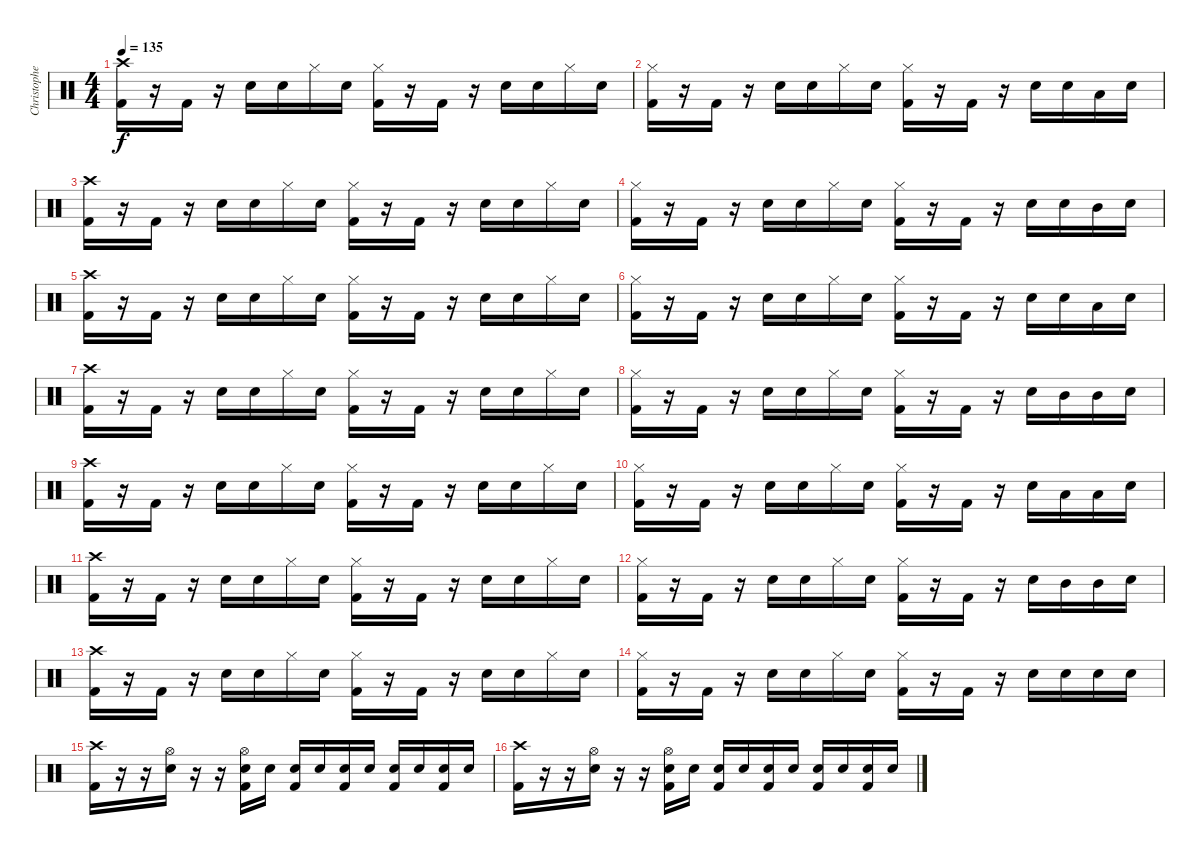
\track ("Christopher - Drums" "Christophe") {instrument percussion}
\staff {score}
\articulation defaults
\ts (4 4)
\tempo 135
\clef neutral
\ks c
("Crash high (hit)" "Kick (hit) 2").16{dy f} r.16 "Kick (hit) 2".16 r.16 "Electric Snare (hit)".16 "Electric Snare (hit)".16 "Hi-Hat (closed)".16 "Electric Snare (hit)".16 ("Hi-Hat (closed)" "Kick (hit) 2").16 r.16 "Kick (hit) 2".16 r.16 "Electric Snare (hit)".16 "Electric Snare (hit)".16 "Hi-Hat (closed)".16 "Electric Snare (hit)".16 |
("Hi-Hat (closed)" "Kick (hit) 2").16 r.16 "Kick (hit) 2".16 r.16 "Electric Snare (hit)".16 "Electric Snare (hit)".16 "Hi-Hat (closed)".16 "Electric Snare (hit)".16 ("Hi-Hat (closed)" "Kick (hit) 2").16 r.16 "Kick (hit) 2".16 r.16 "Electric Snare (hit)".16 "Electric Snare (hit)".16 "Low Floor Tom (hit)".16 "Electric Snare (hit)".16 |
("Crash high (hit)" "Kick (hit) 2").16 r.16 "Kick (hit) 2".16 r.16 "Electric Snare (hit)".16 "Electric Snare (hit)".16 "Hi-Hat (closed)".16 "Electric Snare (hit)".16 ("Hi-Hat (closed)" "Kick (hit) 2").16 r.16 "Kick (hit) 2".16 r.16 "Electric Snare (hit)".16 "Electric Snare (hit)".16 "Hi-Hat (closed)".16 "Electric Snare (hit)".16 |
("Hi-Hat (closed)" "Kick (hit) 2").16 r.16 "Kick (hit) 2".16 r.16 "Electric Snare (hit)".16 "Electric Snare (hit)".16 "Hi-Hat (closed)".16 "Electric Snare (hit)".16 ("Hi-Hat (closed)" "Kick (hit) 2").16 r.16 "Kick (hit) 2".16 r.16 "Electric Snare (hit)".16 "Electric Snare (hit)".16 "Mid Tom (hit)".16 "Electric Snare (hit)".16 |
("Crash high (hit)" "Kick (hit) 2").16 r.16 "Kick (hit) 2".16 r.16 "Electric Snare (hit)".16 "Electric Snare (hit)".16 "Hi-Hat (closed)".16 "Electric Snare (hit)".16 ("Hi-Hat (closed)" "Kick (hit) 2").16 r.16 "Kick (hit) 2".16 r.16 "Electric Snare (hit)".16 "Electric Snare (hit)".16 "Hi-Hat (closed)".16 "Electric Snare (hit)".16 |
("Hi-Hat (closed)" "Kick (hit) 2").16 r.16 "Kick (hit) 2".16 r.16 "Electric Snare (hit)".16 "Electric Snare (hit)".16 "Hi-Hat (closed)".16 "Electric Snare (hit)".16 ("Hi-Hat (closed)" "Kick (hit) 2").16 r.16 "Kick (hit) 2".16 r.16 "Electric Snare (hit)".16 "Electric Snare (hit)".16 "Low Floor Tom (hit)".16 "Electric Snare (hit)".16 |
("Crash high (hit)" "Kick (hit) 2").16 r.16 "Kick (hit) 2".16 r.16 "Electric Snare (hit)".16 "Electric Snare (hit)".16 "Hi-Hat (closed)".16 "Electric Snare (hit)".16 ("Hi-Hat (closed)" "Kick (hit) 2").16 r.16 "Kick (hit) 2".16 r.16 "Electric Snare (hit)".16 "Electric Snare (hit)".16 "Hi-Hat (closed)".16 "Electric Snare (hit)".16 |
("Hi-Hat (closed)" "Kick (hit) 2").16 r.16 "Kick (hit) 2".16 r.16 "Electric Snare (hit)".16 "Electric Snare (hit)".16 "Hi-Hat (closed)".16 "Electric Snare (hit)".16 ("Hi-Hat (closed)" "Kick (hit) 2").16 r.16 "Kick (hit) 2".16 r.16 "Electric Snare (hit)".16 "Mid Tom (hit)".16 "Mid Tom (hit)".16 "Electric Snare (hit)".16 |
("Crash high (hit)" "Kick (hit) 2").16 r.16 "Kick (hit) 2".16 r.16 "Electric Snare (hit)".16 "Electric Snare (hit)".16 "Hi-Hat (closed)".16 "Electric Snare (hit)".16 ("Hi-Hat (closed)" "Kick (hit) 2").16 r.16 "Kick (hit) 2".16 r.16 "Electric Snare (hit)".16 "Electric Snare (hit)".16 "Hi-Hat (closed)".16 "Electric Snare (hit)".16 |
("Hi-Hat (closed)" "Kick (hit) 2").16 r.16 "Kick (hit) 2".16 r.16 "Electric Snare (hit)".16 "Electric Snare (hit)".16 "Hi-Hat (closed)".16 "Electric Snare (hit)".16 ("Hi-Hat (closed)" "Kick (hit) 2").16 r.16 "Kick (hit) 2".16 r.16 "Electric Snare (hit)".16 "Low Floor Tom (hit)".16 "Low Floor Tom (hit)".16 "Electric Snare (hit)".16 |
("Crash high (hit)" "Kick (hit) 2").16 r.16 "Kick (hit) 2".16 r.16 "Electric Snare (hit)".16 "Electric Snare (hit)".16 "Hi-Hat (closed)".16 "Electric Snare (hit)".16 ("Hi-Hat (closed)" "Kick (hit) 2").16 r.16 "Kick (hit) 2".16 r.16 "Electric Snare (hit)".16 "Electric Snare (hit)".16 "Hi-Hat (closed)".16 "Electric Snare (hit)".16 |
("Hi-Hat (closed)" "Kick (hit) 2").16 r.16 "Kick (hit) 2".16 r.16 "Electric Snare (hit)".16 "Electric Snare (hit)".16 "Hi-Hat (closed)".16 "Electric Snare (hit)".16 ("Hi-Hat (closed)" "Kick (hit) 2").16 r.16 "Kick (hit) 2".16 r.16 "Electric Snare (hit)".16 "Mid Tom (hit)".16 "Mid Tom (hit)".16 "Electric Snare (hit)".16 |
("Crash high (hit)" "Kick (hit) 2").16 r.16 "Kick (hit) 2".16 r.16 "Electric Snare (hit)".16 "Electric Snare (hit)".16 "Hi-Hat (closed)".16 "Electric Snare (hit)".16 ("Hi-Hat (closed)" "Kick (hit) 2").16 r.16 "Kick (hit) 2".16 r.16 "Electric Snare (hit)".16 "Electric Snare (hit)".16 "Hi-Hat (closed)".16 "Electric Snare (hit)".16 |
("Hi-Hat (closed)" "Kick (hit) 2").16 r.16 "Kick (hit) 2".16 r.16 "Electric Snare (hit)".16 "Electric Snare (hit)".16 "Hi-Hat (closed)".16 "Electric Snare (hit)".16 ("Hi-Hat (closed)" "Kick (hit) 2").16 r.16 "Kick (hit) 2".16 r.16 "Electric Snare (hit)".16 "Electric Snare (hit)".16 "Electric Snare (hit)".16 "Electric Snare (hit)".16 |
("Crash high (hit)" "Kick (hit) 2").16 r.16 r.16 ("Hi-Hat (open)" "Electric Snare (hit)").16 r.16 r.16 ("Hi-Hat (open)" "Electric Snare (hit)" "Kick (hit) 2").16 "Electric Snare (hit)".16 ("Electric Snare (hit)" "Kick (hit) 2").16 "Electric Snare (hit)".16 ("Electric Snare (hit)" "Kick (hit) 2").16 "Electric Snare (hit)".16 ("Electric Snare (hit)" "Kick (hit) 2").16 "Electric Snare (hit)".16 ("Electric Snare (hit)" "Kick (hit) 2").16 "Electric Snare (hit)".16 |
("Crash high (hit)" "Kick (hit) 2").16 r.16 r.16 ("Hi-Hat (open)" "Electric Snare (hit)").16 r.16 r.16 ("Hi-Hat (open)" "Electric Snare (hit)" "Kick (hit) 2").16 "Electric Snare (hit)".16 ("Electric Snare (hit)" "Kick (hit) 2").16 "Electric Snare (hit)".16 ("Electric Snare (hit)" "Kick (hit) 2").16 "Electric Snare (hit)".16 ("Electric Snare (hit)" "Kick (hit) 2").16 "Electric Snare (hit)".16 ("Electric Snare (hit)" "Kick (hit) 2").16 "Electric Snare (hit)".16
